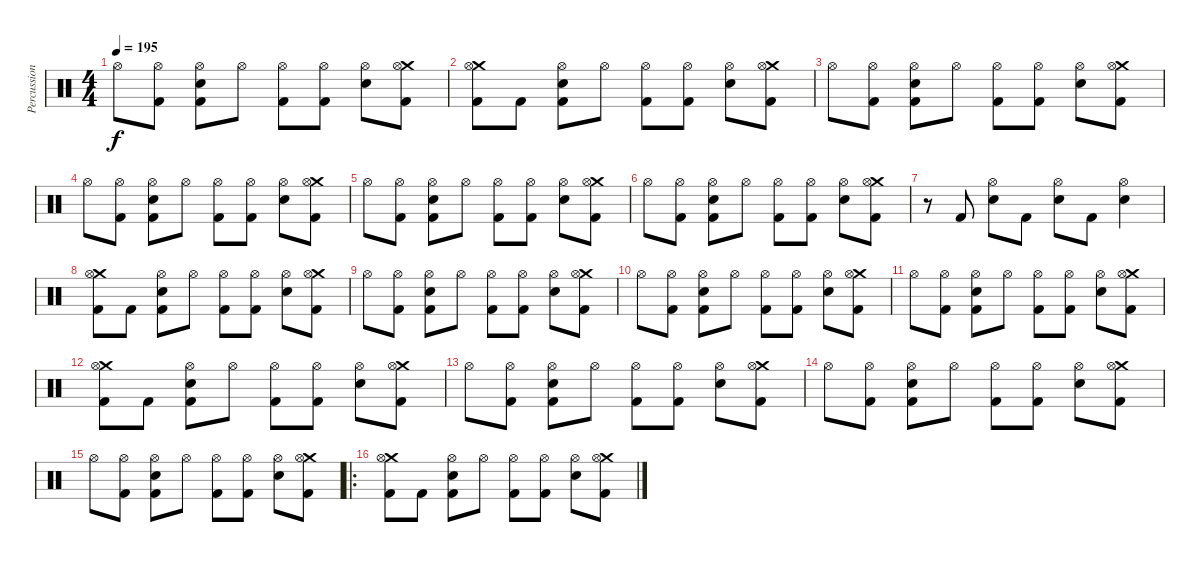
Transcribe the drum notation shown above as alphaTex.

\track ("Percussion" "Percussion") {instrument percussion}
\staff {score}
\articulation defaults
\ts (4 4)
\tempo 195
\clef neutral
\ks c "Hi-Hat (open)".8{dy f}
("Hi-Hat (open)" "Kick (hit) 2").8 ("Hi-Hat (open)" "Snare (hit) 2" "Kick (hit) 2").8 "Hi-Hat (open)".8 ("Hi-Hat (open)" "Kick (hit) 2").8 ("Hi-Hat (open)" "Kick (hit) 2").8 ("Hi-Hat (open)" "Snare (hit) 2").8 ("Crash medium (hit)" "Hi-Hat (open)" "Kick (hit) 2").8 |
("Crash medium (hit)" "Hi-Hat (open)" "Kick (hit) 2").8 "Kick (hit) 2".8 ("Hi-Hat (open)" "Snare (hit) 2" "Kick (hit) 2").8 "Hi-Hat (open)".8 ("Hi-Hat (open)" "Kick (hit) 2").8 ("Hi-Hat (open)" "Kick (hit) 2").8 ("Hi-Hat (open)" "Snare (hit) 2").8 ("Crash medium (hit)" "Hi-Hat (open)" "Kick (hit) 2").8 |
"Hi-Hat (open)".8 ("Hi-Hat (open)" "Kick (hit) 2").8 ("Hi-Hat (open)" "Snare (hit) 2" "Kick (hit) 2").8 "Hi-Hat (open)".8 ("Hi-Hat (open)" "Kick (hit) 2").8 ("Hi-Hat (open)" "Kick (hit) 2").8 ("Hi-Hat (open)" "Snare (hit) 2").8 ("Crash medium (hit)" "Hi-Hat (open)" "Kick (hit) 2").8 |
"Hi-Hat (open)".8 ("Hi-Hat (open)" "Kick (hit) 2").8 ("Hi-Hat (open)" "Snare (hit) 2" "Kick (hit) 2").8 "Hi-Hat (open)".8 ("Hi-Hat (open)" "Kick (hit) 2").8 ("Hi-Hat (open)" "Kick (hit) 2").8 ("Hi-Hat (open)" "Snare (hit) 2").8 ("Crash medium (hit)" "Hi-Hat (open)" "Kick (hit) 2").8 |
"Hi-Hat (open)".8 ("Hi-Hat (open)" "Kick (hit) 2").8 ("Hi-Hat (open)" "Snare (hit) 2" "Kick (hit) 2").8 "Hi-Hat (open)".8 ("Hi-Hat (open)" "Kick (hit) 2").8 ("Hi-Hat (open)" "Kick (hit) 2").8 ("Hi-Hat (open)" "Snare (hit) 2").8 ("Crash medium (hit)" "Hi-Hat (open)" "Kick (hit) 2").8 |
"Hi-Hat (open)".8 ("Hi-Hat (open)" "Kick (hit) 2").8 ("Hi-Hat (open)" "Snare (hit) 2" "Kick (hit) 2").8 "Hi-Hat (open)".8 ("Hi-Hat (open)" "Kick (hit) 2").8 ("Hi-Hat (open)" "Kick (hit) 2").8 ("Hi-Hat (open)" "Snare (hit) 2").8 ("Crash medium (hit)" "Hi-Hat (open)" "Kick (hit) 2").8 |
r.8 "Kick (hit) 2".8 ("Hi-Hat (open)" "Snare (hit) 2").8 "Kick (hit) 2".8 ("Hi-Hat (open)" "Snare (hit) 2").8 "Kick (hit) 2".8 ("Hi-Hat (open)" "Snare (hit) 2").4 |
("Crash medium (hit)" "Hi-Hat (open)" "Kick (hit) 2").8 "Kick (hit) 2".8 ("Hi-Hat (open)" "Snare (hit) 2" "Kick (hit) 2").8 "Hi-Hat (open)".8 ("Hi-Hat (open)" "Kick (hit) 2").8 ("Hi-Hat (open)" "Kick (hit) 2").8 ("Hi-Hat (open)" "Snare (hit) 2").8 ("Crash medium (hit)" "Hi-Hat (open)" "Kick (hit) 2").8 |
"Hi-Hat (open)".8 ("Hi-Hat (open)" "Kick (hit) 2").8 ("Hi-Hat (open)" "Snare (hit) 2" "Kick (hit) 2").8 "Hi-Hat (open)".8 ("Hi-Hat (open)" "Kick (hit) 2").8 ("Hi-Hat (open)" "Kick (hit) 2").8 ("Hi-Hat (open)" "Snare (hit) 2").8 ("Crash medium (hit)" "Hi-Hat (open)" "Kick (hit) 2").8 |
"Hi-Hat (open)".8 ("Hi-Hat (open)" "Kick (hit) 2").8 ("Hi-Hat (open)" "Snare (hit) 2" "Kick (hit) 2").8 "Hi-Hat (open)".8 ("Hi-Hat (open)" "Kick (hit) 2").8 ("Hi-Hat (open)" "Kick (hit) 2").8 ("Hi-Hat (open)" "Snare (hit) 2").8 ("Crash medium (hit)" "Hi-Hat (open)" "Kick (hit) 2").8 |
"Hi-Hat (open)".8 ("Hi-Hat (open)" "Kick (hit) 2").8 ("Hi-Hat (open)" "Snare (hit) 2" "Kick (hit) 2").8 "Hi-Hat (open)".8 ("Hi-Hat (open)" "Kick (hit) 2").8 ("Hi-Hat (open)" "Kick (hit) 2").8 ("Hi-Hat (open)" "Snare (hit) 2").8 ("Crash medium (hit)" "Hi-Hat (open)" "Kick (hit) 2").8 |
("Crash medium (hit)" "Hi-Hat (open)" "Kick (hit) 2").8 "Kick (hit) 2".8 ("Hi-Hat (open)" "Snare (hit) 2" "Kick (hit) 2").8 "Hi-Hat (open)".8 ("Hi-Hat (open)" "Kick (hit) 2").8 ("Hi-Hat (open)" "Kick (hit) 2").8 ("Hi-Hat (open)" "Snare (hit) 2").8 ("Crash medium (hit)" "Hi-Hat (open)" "Kick (hit) 2").8 |
"Hi-Hat (open)".8 ("Hi-Hat (open)" "Kick (hit) 2").8 ("Hi-Hat (open)" "Snare (hit) 2" "Kick (hit) 2").8 "Hi-Hat (open)".8 ("Hi-Hat (open)" "Kick (hit) 2").8 ("Hi-Hat (open)" "Kick (hit) 2").8 ("Hi-Hat (open)" "Snare (hit) 2").8 ("Crash medium (hit)" "Hi-Hat (open)" "Kick (hit) 2").8 |
"Hi-Hat (open)".8 ("Hi-Hat (open)" "Kick (hit) 2").8 ("Hi-Hat (open)" "Snare (hit) 2" "Kick (hit) 2").8 "Hi-Hat (open)".8 ("Hi-Hat (open)" "Kick (hit) 2").8 ("Hi-Hat (open)" "Kick (hit) 2").8 ("Hi-Hat (open)" "Snare (hit) 2").8 ("Crash medium (hit)" "Hi-Hat (open)" "Kick (hit) 2").8 |
"Hi-Hat (open)".8 ("Hi-Hat (open)" "Kick (hit) 2").8 ("Hi-Hat (open)" "Snare (hit) 2" "Kick (hit) 2").8 "Hi-Hat (open)".8 ("Hi-Hat (open)" "Kick (hit) 2").8 ("Hi-Hat (open)" "Kick (hit) 2").8 ("Hi-Hat (open)" "Snare (hit) 2").8 ("Crash medium (hit)" "Hi-Hat (open)" "Kick (hit) 2").8 |
\ro
("Crash medium (hit)" "Hi-Hat (open)" "Kick (hit) 2").8 "Kick (hit) 2".8 ("Hi-Hat (open)" "Snare (hit) 2" "Kick (hit) 2").8 "Hi-Hat (open)".8 ("Hi-Hat (open)" "Kick (hit) 2").8 ("Hi-Hat (open)" "Kick (hit) 2").8 ("Hi-Hat (open)" "Snare (hit) 2").8 ("Crash medium (hit)" "Hi-Hat (open)" "Kick (hit) 2").8
